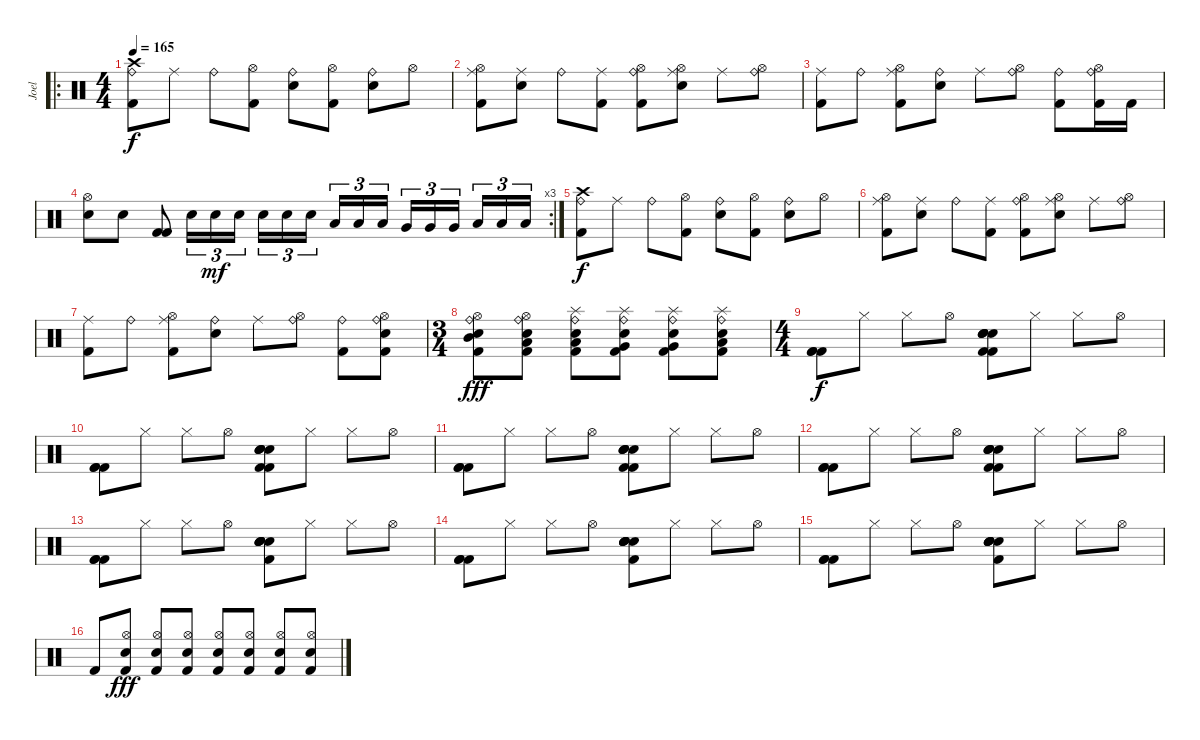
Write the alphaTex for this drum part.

\track ("Joel" "Joel") {instrument percussion}
\staff {score}
\articulation defaults
\ro
\ts (4 4)
\tempo 165
\clef neutral
\ks c
("Crash high (hit)" "Ride (bell)" "Kick (hit) 2").8{dy f} "Ride (middle)".8 "Ride (bell)".8 ("Hi-Hat (open)" "Kick (hit) 2").8 ("Ride (bell)" "Electric Snare (hit)").8 ("Hi-Hat (open)" "Kick (hit) 2").8 ("Ride (bell)" "Electric Snare (hit)").8 "Hi-Hat (open)".8 |
("Ride (middle)" "Hi-Hat (open)" "Kick (hit) 2").8 ("Ride (middle)" "Electric Snare (hit)").8 "Ride (bell)".8 ("Ride (middle)" "Kick (hit) 2").8 ("Ride (bell)" "Hi-Hat (open)" "Kick (hit) 2").8 ("Ride (middle)" "Hi-Hat (open)" "Electric Snare (hit)").8 "Ride (middle)".8 ("Ride (bell)" "Hi-Hat (open)").8 |
("Ride (middle)" "Kick (hit) 2").8 "Ride (bell)".8 ("Ride (middle)" "Hi-Hat (open)" "Kick (hit) 2").8 ("Ride (bell)" "Electric Snare (hit)").8 "Ride (middle)".8 ("Ride (bell)" "Hi-Hat (open)").8 ("Ride (bell)" "Kick (hit) 2").8 ("Ride (bell)" "Hi-Hat (open)" "Kick (hit) 2").16 "Kick (hit) 2".16 |
\rc 3
("Hi-Hat (open)" "Electric Snare (hit)").8 "Electric Snare (hit)".8 ("Kick (hit) 2" "Kick (hit) 2").8 "Electric Snare (hit)".16{tu (3 2)} "Electric Snare (hit)".16{tu (3 2) dy mf} "Electric Snare (hit)".16{tu (3 2)} "Electric Snare (hit)".16{tu (3 2)} "Electric Snare (hit)".16{tu (3 2)} "Electric Snare (hit)".16{tu (3 2)} "Low Tom (hit)".16{tu (3 2)} "Low Tom (hit)".16{tu (3 2)} "Low Tom (hit)".16{tu (3 2)} "Very Low Tom (hit)".16{tu (3 2)} "Very Low Tom (hit)".16{tu (3 2)} "Very Low Tom (hit)".16{tu (3 2)} "Low Floor Tom (hit)".16{tu (3 2)} "Low Floor Tom (hit)".16{tu (3 2)} "Low Floor Tom (hit)".16{tu (3 2)} |
("Crash high (hit)" "Ride (bell)" "Kick (hit) 2").8{dy f} "Ride (middle)".8 "Ride (bell)".8 ("Hi-Hat (open)" "Kick (hit) 2").8 ("Ride (bell)" "Electric Snare (hit)").8 ("Hi-Hat (open)" "Kick (hit) 2").8 ("Ride (bell)" "Electric Snare (hit)").8 "Hi-Hat (open)".8 |
("Ride (middle)" "Hi-Hat (open)" "Kick (hit) 2").8 ("Ride (middle)" "Electric Snare (hit)").8 "Ride (bell)".8 ("Ride (middle)" "Kick (hit) 2").8 ("Ride (bell)" "Hi-Hat (open)" "Kick (hit) 2").8 ("Ride (middle)" "Hi-Hat (open)" "Electric Snare (hit)").8 "Ride (middle)".8 ("Ride (bell)" "Hi-Hat (open)").8 |
("Ride (middle)" "Kick (hit) 2").8 "Ride (bell)".8 ("Ride (middle)" "Hi-Hat (open)" "Kick (hit) 2").8 ("Ride (bell)" "Electric Snare (hit)").8 "Ride (middle)".8 ("Ride (bell)" "Hi-Hat (open)").8 ("Ride (bell)" "Kick (hit) 2").8 ("Ride (bell)" "Hi-Hat (open)" "Kick (hit) 2" "Electric Snare (hit)").8 |
\ts (3 4)
("Ride (bell)" "Hi-Hat (open)" "Mid Tom (hit)" "Kick (hit) 2" "Electric Snare (hit)").8{dy fff} ("Ride (bell)" "Hi-Hat (open)" "Low Tom (hit)" "Kick (hit) 2" "Electric Snare (hit)").8 ("Ride (bell)" "Splash (hit)" "Low Tom (hit)" "Kick (hit) 2" "Electric Snare (hit)").8 ("Ride (bell)" "Splash (hit)" "Very Low Tom (hit)" "Kick (hit) 2" "Electric Snare (hit)").8 ("Ride (bell)" "Splash (hit)" "Very Low Tom (hit)" "Kick (hit) 2" "Electric Snare (hit)").8 ("Ride (bell)" "Splash (hit)" "Low Floor Tom (hit)" "Kick (hit) 2" "Electric Snare (hit)").8 |
\ts (4 4)
("Kick (hit) 2" "Kick (hit) 2" "Kick (hit) 2").8{dy f} "Hi-Hat (closed)".8 "Hi-Hat (closed)".8 "Hi-Hat (open)".8 ("Kick (hit) 2" "Electric Snare (hit)" "Electric Snare (hit)" "Kick (hit) 2" "Electric Snare (hit)" "Electric Snare (hit)").8 "Hi-Hat (closed)".8 "Hi-Hat (closed)".8 "Hi-Hat (open)".8 |
("Kick (hit) 2" "Kick (hit) 2" "Kick (hit) 2").8 "Hi-Hat (closed)".8 "Hi-Hat (closed)".8 "Hi-Hat (open)".8 ("Kick (hit) 2" "Electric Snare (hit)" "Electric Snare (hit)" "Kick (hit) 2" "Electric Snare (hit)" "Electric Snare (hit)").8 "Hi-Hat (closed)".8 "Hi-Hat (closed)".8 "Hi-Hat (open)".8 |
("Kick (hit) 2" "Kick (hit) 2" "Kick (hit) 2").8 "Hi-Hat (closed)".8 "Hi-Hat (closed)".8 "Hi-Hat (open)".8 ("Kick (hit) 2" "Electric Snare (hit)" "Electric Snare (hit)" "Kick (hit) 2" "Electric Snare (hit)" "Electric Snare (hit)").8 "Hi-Hat (closed)".8 "Hi-Hat (closed)".8 "Hi-Hat (open)".8 |
("Kick (hit) 2" "Kick (hit) 2" "Kick (hit) 2").8 "Hi-Hat (closed)".8 "Hi-Hat (closed)".8 "Hi-Hat (open)".8 ("Kick (hit) 2" "Electric Snare (hit)" "Electric Snare (hit)" "Kick (hit) 2" "Electric Snare (hit)" "Electric Snare (hit)").8 "Hi-Hat (closed)".8 "Hi-Hat (closed)".8 "Hi-Hat (open)".8 |
("Kick (hit) 2" "Kick (hit) 2" "Kick (hit) 2").8 "Hi-Hat (closed)".8 "Hi-Hat (closed)".8 "Hi-Hat (open)".8 ("Electric Snare (hit)" "Electric Snare (hit)" "Electric Snare (hit)" "Electric Snare (hit)" "Kick (hit) 2" "Electric Snare (hit)").8 "Hi-Hat (closed)".8 "Hi-Hat (closed)".8 "Hi-Hat (open)".8 |
("Kick (hit) 2" "Kick (hit) 2" "Kick (hit) 2").8 "Hi-Hat (closed)".8 "Hi-Hat (closed)".8 "Hi-Hat (open)".8 ("Electric Snare (hit)" "Electric Snare (hit)" "Electric Snare (hit)" "Electric Snare (hit)" "Kick (hit) 2" "Electric Snare (hit)").8 "Hi-Hat (closed)".8 "Hi-Hat (closed)".8 "Hi-Hat (open)".8 |
("Kick (hit) 2" "Kick (hit) 2" "Kick (hit) 2").8 "Hi-Hat (closed)".8 "Hi-Hat (closed)".8 "Hi-Hat (open)".8 ("Electric Snare (hit)" "Electric Snare (hit)" "Electric Snare (hit)" "Electric Snare (hit)" "Kick (hit) 2" "Electric Snare (hit)").8 "Hi-Hat (closed)".8 "Hi-Hat (closed)".8 "Hi-Hat (open)".8 |
"Kick (hit) 2".8 ("Hi-Hat (open)" "Kick (hit) 2" "Electric Snare (hit)").8{dy fff} ("Hi-Hat (open)" "Kick (hit) 2" "Electric Snare (hit)").8 ("Hi-Hat (open)" "Kick (hit) 2" "Electric Snare (hit)").8 ("Hi-Hat (open)" "Kick (hit) 2" "Electric Snare (hit)").8 ("Hi-Hat (open)" "Kick (hit) 2" "Electric Snare (hit)").8 ("Hi-Hat (open)" "Kick (hit) 2" "Electric Snare (hit)").8 ("Hi-Hat (open)" "Kick (hit) 2" "Electric Snare (hit)").8
